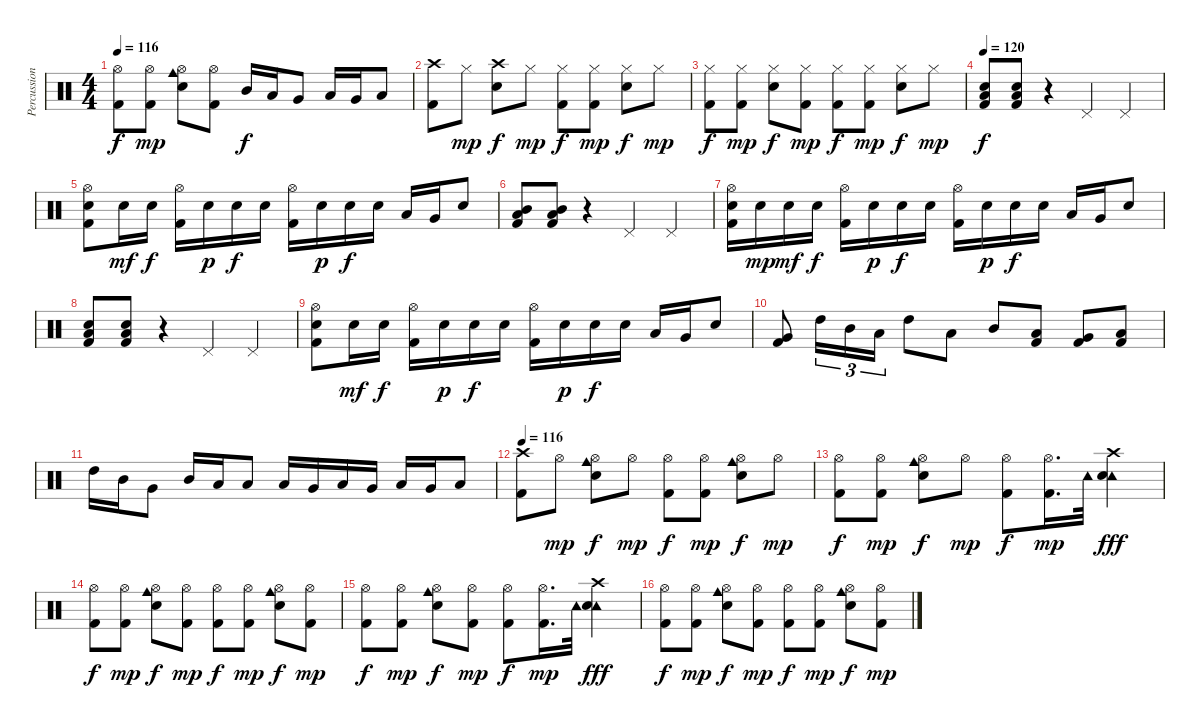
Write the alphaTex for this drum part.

\track ("Percussion (Peter)" "Percussion") {instrument percussion}
\staff {score}
\articulation defaults
\ts (4 4)
\tempo 116
\clef neutral
\ks c
("Hi-Hat (open)" "Kick (hit) 2").8{dy f} ("Hi-Hat (open)" "Kick (hit) 2").8{dy mp} ("Cowbell medium (hit)" "Hi-Hat (open)" "Snare (hit) 2").8 ("Hi-Hat (open)" "Kick (hit) 2").8 "Mid Tom (hit)".16{dy f} "Low Tom (hit)".16 "Very Low Tom (hit)".8 "Low Tom (hit)".16 "Very Low Tom (hit)".16 "Low Floor Tom (hit)".8 |
("Crash high (hit)" "Kick (hit) 2").8 "Hi-Hat (closed)".8{dy mp} ("Crash high (hit)" "Snare (hit) 2").8{dy f} "Hi-Hat (closed)".8{dy mp} ("Hi-Hat (closed)" "Kick (hit) 2").8{dy f} ("Hi-Hat (closed)" "Kick (hit) 2").8{dy mp} ("Hi-Hat (closed)" "Snare (hit) 2").8{dy f} "Hi-Hat (closed)".8{dy mp} |
("Hi-Hat (closed)" "Kick (hit) 2").8{dy f} ("Hi-Hat (closed)" "Kick (hit) 2").8{dy mp} ("Hi-Hat (closed)" "Snare (hit) 2").8{dy f} ("Hi-Hat (closed)" "Kick (hit) 2").8{dy mp} ("Hi-Hat (closed)" "Kick (hit) 2").8{dy f} ("Hi-Hat (closed)" "Kick (hit) 2").8{dy mp} ("Hi-Hat (closed)" "Snare (hit) 2").8{dy f} "Hi-Hat (closed)".8{dy mp} |
\tempo 120
("Low Tom (hit)" "Snare (hit) 2" "Kick (hit) 2").8{dy f} ("Low Tom (hit)" "Snare (hit) 2" "Kick (hit) 2").8 r.4 "Pedal Hi-Hat (hit)".4 "Pedal Hi-Hat (hit)".4 |
("Hi-Hat (open)" "Snare (hit) 2" "Kick (hit) 2").8 "Snare (hit) 2".16{dy mf} "Snare (hit) 2".16{dy f} ("Hi-Hat (open)" "Kick (hit) 2").16 "Snare (hit) 2".16{dy p} "Snare (hit) 2".16{dy f} "Snare (hit) 2".16 ("Hi-Hat (open)" "Kick (hit) 2").16 "Snare (hit) 2".16{dy p} "Snare (hit) 2".16{dy f} "Snare (hit) 2".16 "Low Tom (hit)".16 "Very Low Tom (hit)".16 "Snare (hit) 2".8 |
("Mid Tom (hit)" "Low Tom (hit)" "Kick (hit) 2").8 ("Mid Tom (hit)" "Low Tom (hit)" "Kick (hit) 2").8 r.4 "Pedal Hi-Hat (hit)".4 "Pedal Hi-Hat (hit)".4 |
("Hi-Hat (open)" "Snare (hit) 2" "Kick (hit) 2").16 "Snare (hit) 2".16{dy mp} "Snare (hit) 2".16{dy mf} "Snare (hit) 2".16{dy f} ("Hi-Hat (open)" "Kick (hit) 2").16 "Snare (hit) 2".16{dy p} "Snare (hit) 2".16{dy f} "Snare (hit) 2".16 ("Hi-Hat (open)" "Kick (hit) 2").16 "Snare (hit) 2".16{dy p} "Snare (hit) 2".16{dy f} "Snare (hit) 2".16 "Low Tom (hit)".16 "Very Low Tom (hit)".16 "Snare (hit) 2".8 |
("Low Tom (hit)" "Snare (hit) 2" "Kick (hit) 2").8 ("Low Tom (hit)" "Snare (hit) 2" "Kick (hit) 2").8 r.4 "Pedal Hi-Hat (hit)".4 "Pedal Hi-Hat (hit)".4 |
("Hi-Hat (open)" "Snare (hit) 2" "Kick (hit) 2").8 "Snare (hit) 2".16{dy mf} "Snare (hit) 2".16{dy f} ("Hi-Hat (open)" "Kick (hit) 2").16 "Snare (hit) 2".16{dy p} "Snare (hit) 2".16{dy f} "Snare (hit) 2".16 ("Hi-Hat (open)" "Kick (hit) 2").16 "Snare (hit) 2".16{dy p} "Snare (hit) 2".16{dy f} "Snare (hit) 2".16 "Low Tom (hit)".16 "Very Low Tom (hit)".16 "Snare (hit) 2".8 |
("Very Low Tom (hit)" "Kick (hit) 2").8 "High Tom (hit)".16{tu (3 2)} "Mid Tom (hit)".16{tu (3 2)} "Low Tom (hit)".16{tu (3 2)} "High Tom (hit)".8 "Low Tom (hit)".8 "Mid Tom (hit)".8 ("Low Tom (hit)" "Kick (hit) 2").8 ("Very Low Tom (hit)" "Kick (hit) 2").8 ("Low Floor Tom (hit)" "Kick (hit) 2").8 |
"High Tom (hit)".16 "Mid Tom (hit)".16 "Very Low Tom (hit)".8 "Mid Tom (hit)".16 "Low Tom (hit)".16 "Low Floor Tom (hit)".8 "Low Tom (hit)".16 "Very Low Tom (hit)".16 "Low Floor Tom (hit)".16 "Very Low Tom (hit)".16 "Low Floor Tom (hit)".16 "Very Low Tom (hit)".16 "Low Floor Tom (hit)".8 |
\tempo 116
("Crash high (hit)" "Kick (hit) 2").8 "Hi-Hat (open)".8{dy mp} ("Cowbell medium (hit)" "Hi-Hat (open)" "Snare (hit) 2").8{dy f} "Hi-Hat (open)".8{dy mp} ("Hi-Hat (open)" "Kick (hit) 2").8{dy f} ("Hi-Hat (open)" "Kick (hit) 2").8{dy mp} ("Cowbell medium (hit)" "Hi-Hat (open)" "Snare (hit) 2").8{dy f} "Hi-Hat (open)".8{dy mp} |
("Hi-Hat (open)" "Kick (hit) 2").8{dy f} ("Hi-Hat (open)" "Kick (hit) 2").8{dy mp} ("Cowbell medium (hit)" "Hi-Hat (open)" "Snare (hit) 2").8{dy f} "Hi-Hat (open)".8{dy mp} ("Hi-Hat (open)" "Kick (hit) 2").8{dy f} ("Hi-Hat (open)" "Kick (hit) 2").16{d dy mp} "Tambourine (hit)".32 ("Crash high (hit)" "Tambourine (hit)" "Snare (hit) 2").4{dy fff} |
("Hi-Hat (open)" "Kick (hit) 2").8{dy f} ("Hi-Hat (open)" "Kick (hit) 2").8{dy mp} ("Cowbell medium (hit)" "Hi-Hat (open)" "Snare (hit) 2").8{dy f} ("Hi-Hat (open)" "Kick (hit) 2").8{dy mp} ("Hi-Hat (open)" "Kick (hit) 2").8{dy f} ("Hi-Hat (open)" "Kick (hit) 2").8{dy mp} ("Cowbell medium (hit)" "Hi-Hat (open)" "Snare (hit) 2").8{dy f} ("Hi-Hat (open)" "Kick (hit) 2").8{dy mp} |
("Hi-Hat (open)" "Kick (hit) 2").8{dy f} ("Hi-Hat (open)" "Kick (hit) 2").8{dy mp} ("Cowbell medium (hit)" "Hi-Hat (open)" "Snare (hit) 2").8{dy f} ("Hi-Hat (open)" "Kick (hit) 2").8{dy mp} ("Hi-Hat (open)" "Kick (hit) 2").8{dy f} ("Hi-Hat (open)" "Kick (hit) 2").16{d dy mp} "Tambourine (hit)".32 ("Crash high (hit)" "Tambourine (hit)" "Snare (hit) 2").4{dy fff} |
("Hi-Hat (open)" "Kick (hit) 2").8{dy f} ("Hi-Hat (open)" "Kick (hit) 2").8{dy mp} ("Cowbell medium (hit)" "Hi-Hat (open)" "Snare (hit) 2").8{dy f} ("Hi-Hat (open)" "Kick (hit) 2").8{dy mp} ("Hi-Hat (open)" "Kick (hit) 2").8{dy f} ("Hi-Hat (open)" "Kick (hit) 2").8{dy mp} ("Cowbell medium (hit)" "Hi-Hat (open)" "Snare (hit) 2").8{dy f} ("Hi-Hat (open)" "Kick (hit) 2").8{dy mp}
